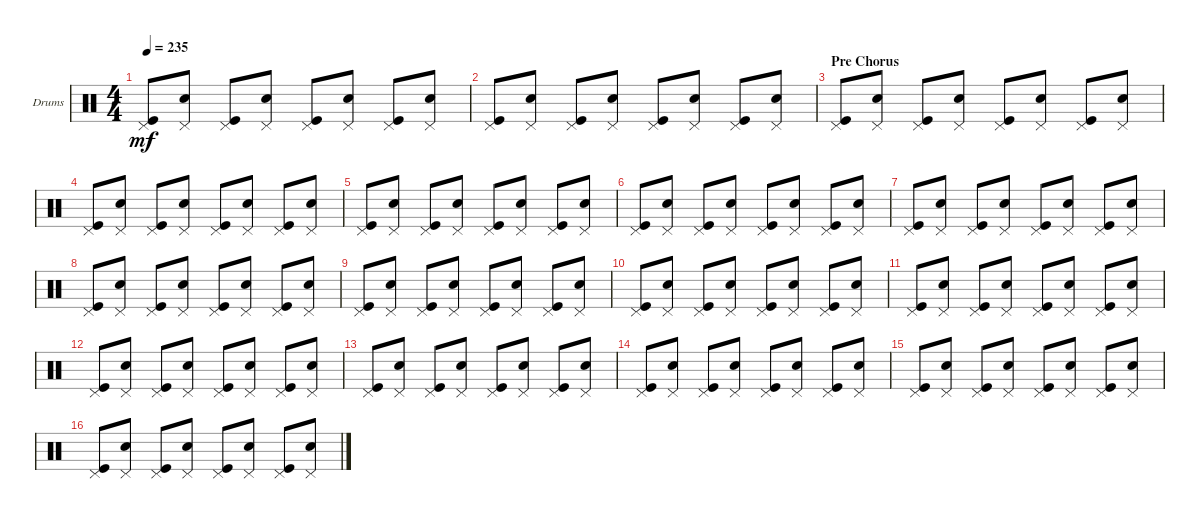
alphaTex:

\defaultSystemsLayout 4
\bracketExtendMode groupsimilarinstruments
\firstSystemTrackNameOrientation horizontal
\otherSystemsTrackNameOrientation horizontal
\track ("Drumkit" "Drums") {instrument percussion}
\staff {score}
\articulation defaults
\ts (4 4)
\tempo 235
\clef neutral
\scale
0.333333
\ks c
("Kick (hit)" "Pedal Hi-Hat (hit)").8{dy mf} ("Snare (hit) 2" "Pedal Hi-Hat (hit)").8 ("Kick (hit)" "Pedal Hi-Hat (hit)").8 ("Snare (hit) 2" "Pedal Hi-Hat (hit)").8 ("Kick (hit)" "Pedal Hi-Hat (hit)").8 ("Snare (hit) 2" "Pedal Hi-Hat (hit)").8 ("Kick (hit)" "Pedal Hi-Hat (hit)").8 ("Snare (hit) 2" "Pedal Hi-Hat (hit)").8 |
\scale
0.333333 ("Kick (hit)" "Pedal Hi-Hat (hit)").8 ("Snare (hit) 2" "Pedal Hi-Hat (hit)").8 ("Kick (hit)" "Pedal Hi-Hat (hit)").8 ("Snare (hit) 2" "Pedal Hi-Hat (hit)").8 ("Kick (hit)" "Pedal Hi-Hat (hit)").8 ("Snare (hit) 2" "Pedal Hi-Hat (hit)").8 ("Kick (hit)" "Pedal Hi-Hat (hit)").8 ("Snare (hit) 2" "Pedal Hi-Hat (hit)").8 |
\section ("" "Pre Chorus")
\scale
0.333333 ("Kick (hit)" "Pedal Hi-Hat (hit)").8 ("Snare (hit) 2" "Pedal Hi-Hat (hit)").8 ("Kick (hit)" "Pedal Hi-Hat (hit)").8 ("Snare (hit) 2" "Pedal Hi-Hat (hit)").8 ("Kick (hit)" "Pedal Hi-Hat (hit)").8 ("Snare (hit) 2" "Pedal Hi-Hat (hit)").8 ("Kick (hit)" "Pedal Hi-Hat (hit)").8 ("Snare (hit) 2" "Pedal Hi-Hat (hit)").8 |
\scale
0.333333 ("Kick (hit)" "Pedal Hi-Hat (hit)").8 ("Snare (hit) 2" "Pedal Hi-Hat (hit)").8 ("Kick (hit)" "Pedal Hi-Hat (hit)").8 ("Snare (hit) 2" "Pedal Hi-Hat (hit)").8 ("Kick (hit)" "Pedal Hi-Hat (hit)").8 ("Snare (hit) 2" "Pedal Hi-Hat (hit)").8 ("Kick (hit)" "Pedal Hi-Hat (hit)").8 ("Snare (hit) 2" "Pedal Hi-Hat (hit)").8 |
\scale
0.333333 ("Kick (hit)" "Pedal Hi-Hat (hit)").8 ("Snare (hit) 2" "Pedal Hi-Hat (hit)").8 ("Kick (hit)" "Pedal Hi-Hat (hit)").8 ("Snare (hit) 2" "Pedal Hi-Hat (hit)").8 ("Kick (hit)" "Pedal Hi-Hat (hit)").8 ("Snare (hit) 2" "Pedal Hi-Hat (hit)").8 ("Kick (hit)" "Pedal Hi-Hat (hit)").8 ("Snare (hit) 2" "Pedal Hi-Hat (hit)").8 |
\scale
0.333333 ("Kick (hit)" "Pedal Hi-Hat (hit)").8 ("Snare (hit) 2" "Pedal Hi-Hat (hit)").8 ("Kick (hit)" "Pedal Hi-Hat (hit)").8 ("Snare (hit) 2" "Pedal Hi-Hat (hit)").8 ("Kick (hit)" "Pedal Hi-Hat (hit)").8 ("Snare (hit) 2" "Pedal Hi-Hat (hit)").8 ("Kick (hit)" "Pedal Hi-Hat (hit)").8 ("Snare (hit) 2" "Pedal Hi-Hat (hit)").8 |
\scale
0.333333 ("Kick (hit)" "Pedal Hi-Hat (hit)").8 ("Snare (hit) 2" "Pedal Hi-Hat (hit)").8 ("Kick (hit)" "Pedal Hi-Hat (hit)").8 ("Snare (hit) 2" "Pedal Hi-Hat (hit)").8 ("Kick (hit)" "Pedal Hi-Hat (hit)").8 ("Snare (hit) 2" "Pedal Hi-Hat (hit)").8 ("Kick (hit)" "Pedal Hi-Hat (hit)").8 ("Snare (hit) 2" "Pedal Hi-Hat (hit)").8 |
\scale
0.333333 ("Kick (hit)" "Pedal Hi-Hat (hit)").8 ("Snare (hit) 2" "Pedal Hi-Hat (hit)").8 ("Kick (hit)" "Pedal Hi-Hat (hit)").8 ("Snare (hit) 2" "Pedal Hi-Hat (hit)").8 ("Kick (hit)" "Pedal Hi-Hat (hit)").8 ("Snare (hit) 2" "Pedal Hi-Hat (hit)").8 ("Kick (hit)" "Pedal Hi-Hat (hit)").8 ("Snare (hit) 2" "Pedal Hi-Hat (hit)").8 |
\scale
0.333333 ("Kick (hit)" "Pedal Hi-Hat (hit)").8 ("Snare (hit) 2" "Pedal Hi-Hat (hit)").8 ("Kick (hit)" "Pedal Hi-Hat (hit)").8 ("Snare (hit) 2" "Pedal Hi-Hat (hit)").8 ("Kick (hit)" "Pedal Hi-Hat (hit)").8 ("Snare (hit) 2" "Pedal Hi-Hat (hit)").8 ("Kick (hit)" "Pedal Hi-Hat (hit)").8 ("Snare (hit) 2" "Pedal Hi-Hat (hit)").8 |
\scale
0.333333 ("Kick (hit)" "Pedal Hi-Hat (hit)").8 ("Snare (hit) 2" "Pedal Hi-Hat (hit)").8 ("Kick (hit)" "Pedal Hi-Hat (hit)").8 ("Snare (hit) 2" "Pedal Hi-Hat (hit)").8 ("Kick (hit)" "Pedal Hi-Hat (hit)").8 ("Snare (hit) 2" "Pedal Hi-Hat (hit)").8 ("Kick (hit)" "Pedal Hi-Hat (hit)").8 ("Snare (hit) 2" "Pedal Hi-Hat (hit)").8 |
\scale
0.333333 ("Kick (hit)" "Pedal Hi-Hat (hit)").8 ("Snare (hit) 2" "Pedal Hi-Hat (hit)").8 ("Kick (hit)" "Pedal Hi-Hat (hit)").8 ("Snare (hit) 2" "Pedal Hi-Hat (hit)").8 ("Kick (hit)" "Pedal Hi-Hat (hit)").8 ("Snare (hit) 2" "Pedal Hi-Hat (hit)").8 ("Kick (hit)" "Pedal Hi-Hat (hit)").8 ("Snare (hit) 2" "Pedal Hi-Hat (hit)").8 |
\scale
0.333333 ("Kick (hit)" "Pedal Hi-Hat (hit)").8 ("Snare (hit) 2" "Pedal Hi-Hat (hit)").8 ("Kick (hit)" "Pedal Hi-Hat (hit)").8 ("Snare (hit) 2" "Pedal Hi-Hat (hit)").8 ("Kick (hit)" "Pedal Hi-Hat (hit)").8 ("Snare (hit) 2" "Pedal Hi-Hat (hit)").8 ("Kick (hit)" "Pedal Hi-Hat (hit)").8 ("Snare (hit) 2" "Pedal Hi-Hat (hit)").8 |
\scale
0.333333 ("Kick (hit)" "Pedal Hi-Hat (hit)").8 ("Snare (hit) 2" "Pedal Hi-Hat (hit)").8 ("Kick (hit)" "Pedal Hi-Hat (hit)").8 ("Snare (hit) 2" "Pedal Hi-Hat (hit)").8 ("Kick (hit)" "Pedal Hi-Hat (hit)").8 ("Snare (hit) 2" "Pedal Hi-Hat (hit)").8 ("Kick (hit)" "Pedal Hi-Hat (hit)").8 ("Snare (hit) 2" "Pedal Hi-Hat (hit)").8 |
\scale
0.333333 ("Kick (hit)" "Pedal Hi-Hat (hit)").8 ("Snare (hit) 2" "Pedal Hi-Hat (hit)").8 ("Kick (hit)" "Pedal Hi-Hat (hit)").8 ("Snare (hit) 2" "Pedal Hi-Hat (hit)").8 ("Kick (hit)" "Pedal Hi-Hat (hit)").8 ("Snare (hit) 2" "Pedal Hi-Hat (hit)").8 ("Kick (hit)" "Pedal Hi-Hat (hit)").8 ("Snare (hit) 2" "Pedal Hi-Hat (hit)").8 |
\scale
0.333333 ("Kick (hit)" "Pedal Hi-Hat (hit)").8 ("Snare (hit) 2" "Pedal Hi-Hat (hit)").8 ("Kick (hit)" "Pedal Hi-Hat (hit)").8 ("Snare (hit) 2" "Pedal Hi-Hat (hit)").8 ("Kick (hit)" "Pedal Hi-Hat (hit)").8 ("Snare (hit) 2" "Pedal Hi-Hat (hit)").8 ("Kick (hit)" "Pedal Hi-Hat (hit)").8 ("Snare (hit) 2" "Pedal Hi-Hat (hit)").8 |
\scale
0.333333 ("Kick (hit)" "Pedal Hi-Hat (hit)").8 ("Snare (hit) 2" "Pedal Hi-Hat (hit)").8 ("Kick (hit)" "Pedal Hi-Hat (hit)").8 ("Snare (hit) 2" "Pedal Hi-Hat (hit)").8 ("Kick (hit)" "Pedal Hi-Hat (hit)").8 ("Snare (hit) 2" "Pedal Hi-Hat (hit)").8 ("Kick (hit)" "Pedal Hi-Hat (hit)").8 ("Snare (hit) 2" "Pedal Hi-Hat (hit)").8
